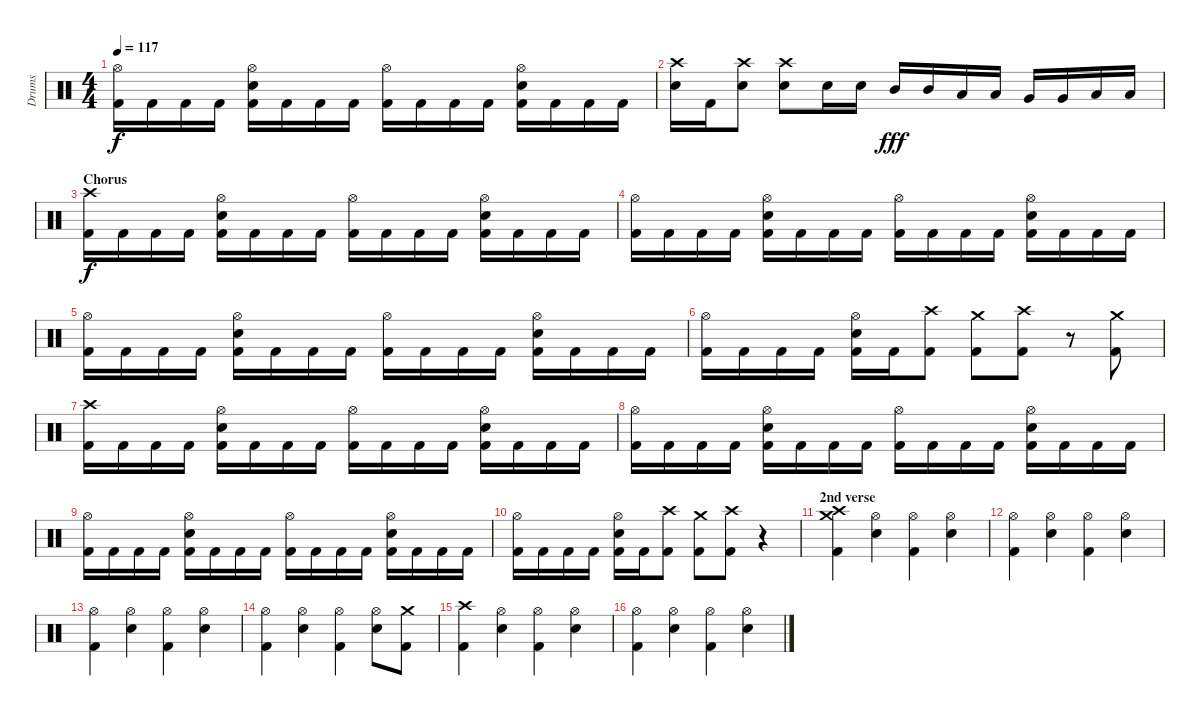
\track ("Drums" "Drums") {instrument percussion}
\staff {score}
\articulation defaults
\ts (4 4)
\tempo 117
\clef neutral
\ks c
("Hi-Hat (open)" "Kick (hit) 2").16{dy f} "Kick (hit) 2".16 "Kick (hit) 2".16 "Kick (hit) 2".16 ("Hi-Hat (open)" "Snare (hit) 2" "Kick (hit) 2").16 "Kick (hit) 2".16 "Kick (hit) 2".16 "Kick (hit) 2".16 ("Hi-Hat (open)" "Kick (hit) 2").16 "Kick (hit) 2".16 "Kick (hit) 2".16 "Kick (hit) 2".16 ("Hi-Hat (open)" "Snare (hit) 2" "Kick (hit) 2").16 "Kick (hit) 2".16 "Kick (hit) 2".16 "Kick (hit) 2".16 |
("Crash high (hit)" "Snare (hit) 2").16 "Kick (hit) 2".16 ("Crash high (hit)" "Snare (hit) 2").8 ("Crash high (hit)" "Snare (hit) 2").8 "Snare (hit) 2".16 "Snare (hit) 2".16 "Mid Tom (hit)".16{dy fff} "Mid Tom (hit)".16 "Low Tom (hit)".16 "Low Tom (hit)".16 "Very Low Tom (hit)".16 "Very Low Tom (hit)".16 "Low Floor Tom (hit)".16 "Low Floor Tom (hit)".16 |
\section ("" "Chorus")
("Crash high (hit)" "Kick (hit) 2").16{dy f} "Kick (hit) 2".16 "Kick (hit) 2".16 "Kick (hit) 2".16 ("Hi-Hat (open)" "Snare (hit) 2" "Kick (hit) 2").16 "Kick (hit) 2".16 "Kick (hit) 2".16 "Kick (hit) 2".16 ("Hi-Hat (open)" "Kick (hit) 2").16 "Kick (hit) 2".16 "Kick (hit) 2".16 "Kick (hit) 2".16 ("Hi-Hat (open)" "Snare (hit) 2" "Kick (hit) 2").16 "Kick (hit) 2".16 "Kick (hit) 2".16 "Kick (hit) 2".16 |
("Hi-Hat (open)" "Kick (hit) 2").16 "Kick (hit) 2".16 "Kick (hit) 2".16 "Kick (hit) 2".16 ("Hi-Hat (open)" "Snare (hit) 2" "Kick (hit) 2").16 "Kick (hit) 2".16 "Kick (hit) 2".16 "Kick (hit) 2".16 ("Hi-Hat (open)" "Kick (hit) 2").16 "Kick (hit) 2".16 "Kick (hit) 2".16 "Kick (hit) 2".16 ("Hi-Hat (open)" "Snare (hit) 2" "Kick (hit) 2").16 "Kick (hit) 2".16 "Kick (hit) 2".16 "Kick (hit) 2".16 |
("Hi-Hat (open)" "Kick (hit) 2").16 "Kick (hit) 2".16 "Kick (hit) 2".16 "Kick (hit) 2".16 ("Hi-Hat (open)" "Snare (hit) 2" "Kick (hit) 2").16 "Kick (hit) 2".16 "Kick (hit) 2".16 "Kick (hit) 2".16 ("Hi-Hat (open)" "Kick (hit) 2").16 "Kick (hit) 2".16 "Kick (hit) 2".16 "Kick (hit) 2".16 ("Hi-Hat (open)" "Snare (hit) 2" "Kick (hit) 2").16 "Kick (hit) 2".16 "Kick (hit) 2".16 "Kick (hit) 2".16 |
("Hi-Hat (open)" "Kick (hit) 2").16 "Kick (hit) 2".16 "Kick (hit) 2".16 "Kick (hit) 2".16 ("Hi-Hat (open)" "Snare (hit) 2" "Kick (hit) 2").16 "Kick (hit) 2".16 ("Crash high (hit)" "Kick (hit) 2").8 ("Crash medium (hit)" "Kick (hit) 2").8 ("Crash high (hit)" "Kick (hit) 2").8 r.8 ("Crash medium (hit)" "Kick (hit) 2").8 |
("Crash high (hit)" "Kick (hit) 2").16 "Kick (hit) 2".16 "Kick (hit) 2".16 "Kick (hit) 2".16 ("Hi-Hat (open)" "Snare (hit) 2" "Kick (hit) 2").16 "Kick (hit) 2".16 "Kick (hit) 2".16 "Kick (hit) 2".16 ("Hi-Hat (open)" "Kick (hit) 2").16 "Kick (hit) 2".16 "Kick (hit) 2".16 "Kick (hit) 2".16 ("Hi-Hat (open)" "Snare (hit) 2" "Kick (hit) 2").16 "Kick (hit) 2".16 "Kick (hit) 2".16 "Kick (hit) 2".16 |
("Hi-Hat (open)" "Kick (hit) 2").16 "Kick (hit) 2".16 "Kick (hit) 2".16 "Kick (hit) 2".16 ("Hi-Hat (open)" "Snare (hit) 2" "Kick (hit) 2").16 "Kick (hit) 2".16 "Kick (hit) 2".16 "Kick (hit) 2".16 ("Hi-Hat (open)" "Kick (hit) 2").16 "Kick (hit) 2".16 "Kick (hit) 2".16 "Kick (hit) 2".16 ("Hi-Hat (open)" "Snare (hit) 2" "Kick (hit) 2").16 "Kick (hit) 2".16 "Kick (hit) 2".16 "Kick (hit) 2".16 |
("Hi-Hat (open)" "Kick (hit) 2").16 "Kick (hit) 2".16 "Kick (hit) 2".16 "Kick (hit) 2".16 ("Hi-Hat (open)" "Snare (hit) 2" "Kick (hit) 2").16 "Kick (hit) 2".16 "Kick (hit) 2".16 "Kick (hit) 2".16 ("Hi-Hat (open)" "Kick (hit) 2").16 "Kick (hit) 2".16 "Kick (hit) 2".16 "Kick (hit) 2".16 ("Hi-Hat (open)" "Snare (hit) 2" "Kick (hit) 2").16 "Kick (hit) 2".16 "Kick (hit) 2".16 "Kick (hit) 2".16 |
("Hi-Hat (open)" "Kick (hit) 2").16 "Kick (hit) 2".16 "Kick (hit) 2".16 "Kick (hit) 2".16 ("Hi-Hat (open)" "Snare (hit) 2" "Kick (hit) 2").16 "Kick (hit) 2".16 ("Crash high (hit)" "Kick (hit) 2").8 ("Crash medium (hit)" "Kick (hit) 2").8 ("Crash high (hit)" "Kick (hit) 2").8 r.4 |
\section ("" "2nd verse")
("Crash high (hit)" "Crash medium (hit)" "Kick (hit) 2").4 ("Hi-Hat (open)" "Snare (hit) 2").4 ("Hi-Hat (open)" "Kick (hit) 2").4 ("Hi-Hat (open)" "Snare (hit) 2").4 |
("Hi-Hat (open)" "Kick (hit) 2").4 ("Hi-Hat (open)" "Snare (hit) 2").4 ("Hi-Hat (open)" "Kick (hit) 2").4 ("Hi-Hat (open)" "Snare (hit) 2").4 |
("Hi-Hat (open)" "Kick (hit) 2").4 ("Hi-Hat (open)" "Snare (hit) 2").4 ("Hi-Hat (open)" "Kick (hit) 2").4 ("Hi-Hat (open)" "Snare (hit) 2").4 |
("Hi-Hat (open)" "Kick (hit) 2").4 ("Hi-Hat (open)" "Snare (hit) 2").4 ("Hi-Hat (open)" "Kick (hit) 2").4 ("Hi-Hat (open)" "Snare (hit) 2").8 ("Crash medium (hit)" "Kick (hit) 2").8 |
("Crash high (hit)" "Kick (hit) 2").4 ("Hi-Hat (open)" "Snare (hit) 2").4 ("Hi-Hat (open)" "Kick (hit) 2").4 ("Hi-Hat (open)" "Snare (hit) 2").4 |
("Hi-Hat (open)" "Kick (hit) 2").4 ("Hi-Hat (open)" "Snare (hit) 2").4 ("Hi-Hat (open)" "Kick (hit) 2").4 ("Hi-Hat (open)" "Snare (hit) 2").4
